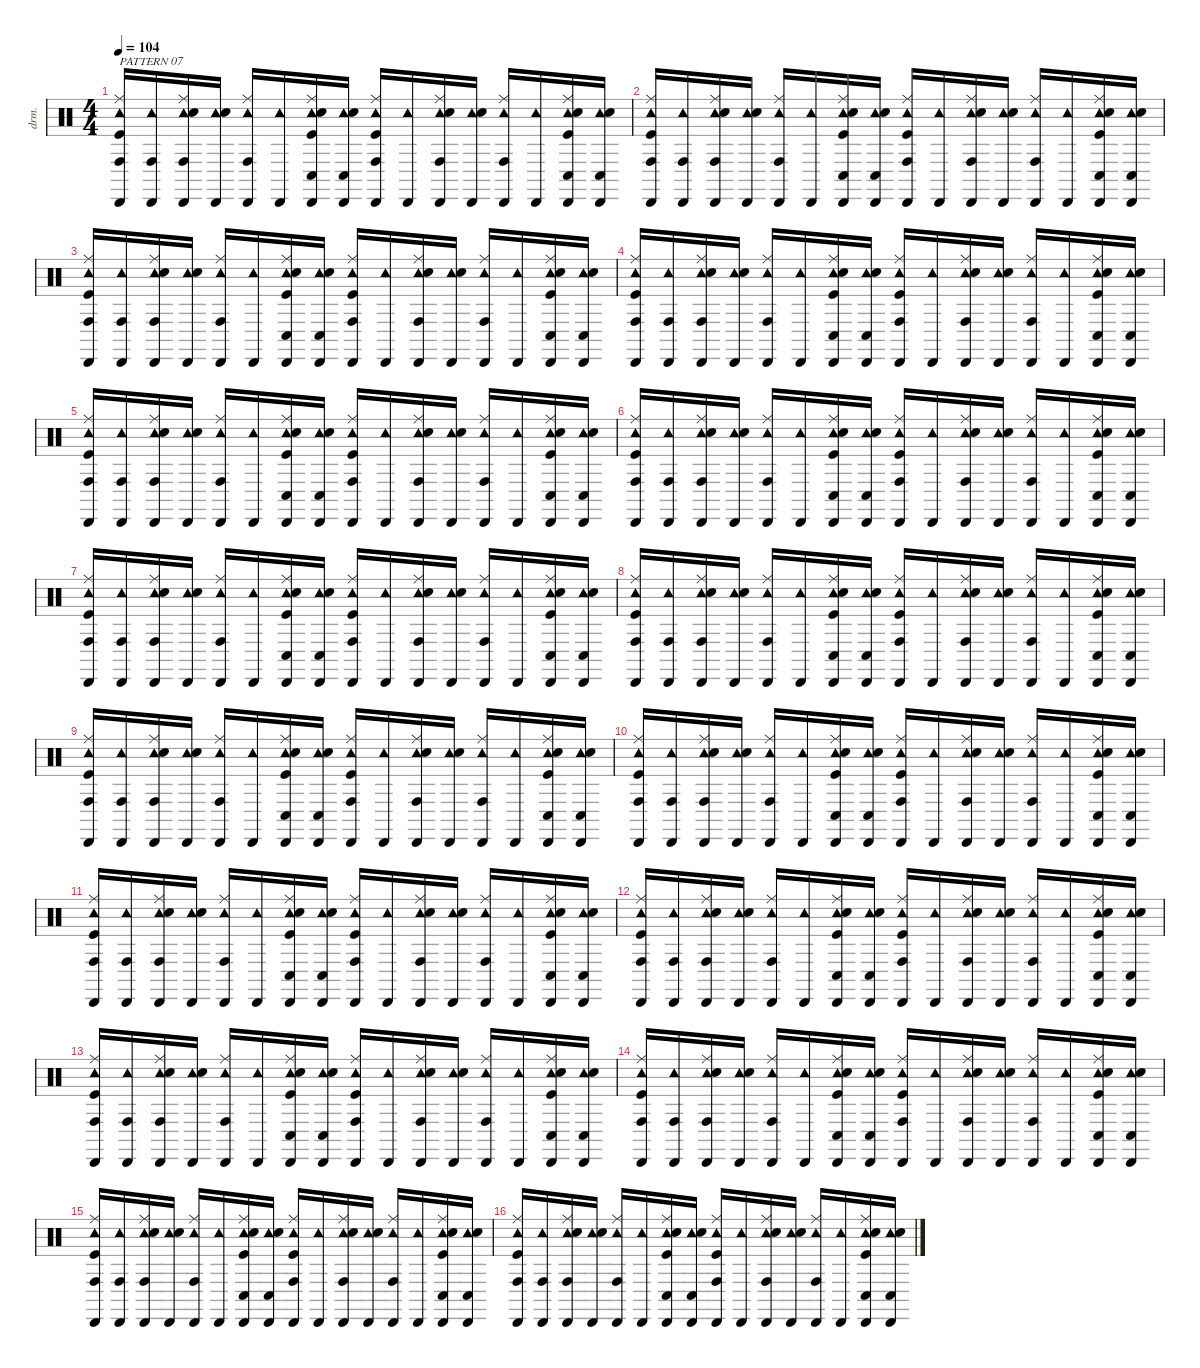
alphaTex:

\defaultSystemsLayout 4
\hideDynamics
\bracketExtendMode nobrackets
\otherSystemsTrackNameOrientation horizontal
\track ("Drums" "drm.") {instrument percussion}
\staff {score}
\articulation defaults
\ts (4 4)
\tempo 104
\clef neutral
\ks c
("Cabasa (hit)" "Conga high (hit)" "Tambourine (hit)" "Ride (middle)" "Kick (hit)").16{txt "PATTERN 07" dy f beam Up} ("Cabasa (hit)" "Conga high (hit)" "Tambourine (hit)").16{beam Up} ("Cabasa (hit)" "Conga high (hit)" "Tambourine (hit)" "Ride (middle)" "Snare (hit) 2").16{beam Up} ("Cabasa (hit)" "Tambourine (hit)" "Snare (hit) 2").16{beam Up} ("Cabasa (hit)" "Conga high (hit)" "Tambourine (hit)" "Ride (middle)").16{beam Up} ("Cabasa (hit)" "Tambourine (hit)").16{beam Up} ("Cabasa (hit)" "Conga low (hit)" "Tambourine (hit)" "Ride (middle)" "Snare (hit) 2" "Kick (hit)").16{beam Up} ("Cabasa (hit)" "Conga low (hit)" "Tambourine (hit)" "Snare (hit) 2").16{beam Up} ("Cabasa (hit)" "Conga high (hit)" "Tambourine (hit)" "Ride (middle)" "Kick (hit)").16{beam Up} ("Cabasa (hit)" "Tambourine (hit)").16{beam Up} ("Cabasa (hit)" "Conga high (hit)" "Tambourine (hit)" "Ride (middle)" "Snare (hit) 2").16{beam Up} ("Cabasa (hit)" "Tambourine (hit)" "Snare (hit) 2").16{beam Up} ("Cabasa (hit)" "Conga high (hit)" "Tambourine (hit)" "Ride (middle)").16{beam Up} ("Cabasa (hit)" "Tambourine (hit)").16{beam Up} ("Cabasa (hit)" "Conga low (hit)" "Tambourine (hit)" "Ride (middle)" "Snare (hit) 2" "Kick (hit)").16{beam Up} ("Cabasa (hit)" "Conga low (hit)" "Tambourine (hit)" "Snare (hit) 2").16{beam Up} |
("Cabasa (hit)" "Conga high (hit)" "Tambourine (hit)" "Ride (middle)" "Kick (hit)").16{beam Up} ("Cabasa (hit)" "Conga high (hit)" "Tambourine (hit)").16{beam Up} ("Cabasa (hit)" "Conga high (hit)" "Tambourine (hit)" "Ride (middle)" "Snare (hit) 2").16{beam Up} ("Cabasa (hit)" "Tambourine (hit)" "Snare (hit) 2").16{beam Up} ("Cabasa (hit)" "Conga high (hit)" "Tambourine (hit)" "Ride (middle)").16{beam Up} ("Cabasa (hit)" "Tambourine (hit)").16{beam Up} ("Cabasa (hit)" "Conga low (hit)" "Tambourine (hit)" "Ride (middle)" "Snare (hit) 2" "Kick (hit)").16{beam Up} ("Cabasa (hit)" "Conga low (hit)" "Tambourine (hit)" "Snare (hit) 2").16{beam Up} ("Cabasa (hit)" "Conga high (hit)" "Tambourine (hit)" "Ride (middle)" "Kick (hit)").16{beam Up} ("Cabasa (hit)" "Tambourine (hit)").16{beam Up} ("Cabasa (hit)" "Conga high (hit)" "Tambourine (hit)" "Ride (middle)" "Snare (hit) 2").16{beam Up} ("Cabasa (hit)" "Tambourine (hit)" "Snare (hit) 2").16{beam Up} ("Cabasa (hit)" "Conga high (hit)" "Tambourine (hit)" "Ride (middle)").16{beam Up} ("Cabasa (hit)" "Tambourine (hit)").16{beam Up} ("Cabasa (hit)" "Conga low (hit)" "Tambourine (hit)" "Ride (middle)" "Snare (hit) 2" "Kick (hit)").16{beam Up} ("Cabasa (hit)" "Conga low (hit)" "Tambourine (hit)" "Snare (hit) 2").16{beam Up} |
("Cabasa (hit)" "Conga high (hit)" "Tambourine (hit)" "Ride (middle)" "Kick (hit)").16{beam Up} ("Cabasa (hit)" "Conga high (hit)" "Tambourine (hit)").16{beam Up} ("Cabasa (hit)" "Conga high (hit)" "Tambourine (hit)" "Ride (middle)" "Snare (hit) 2").16{beam Up} ("Cabasa (hit)" "Tambourine (hit)" "Snare (hit) 2").16{beam Up} ("Cabasa (hit)" "Conga high (hit)" "Tambourine (hit)" "Ride (middle)").16{beam Up} ("Cabasa (hit)" "Tambourine (hit)").16{beam Up} ("Cabasa (hit)" "Conga low (hit)" "Tambourine (hit)" "Ride (middle)" "Snare (hit) 2" "Kick (hit)").16{beam Up} ("Cabasa (hit)" "Conga low (hit)" "Tambourine (hit)" "Snare (hit) 2").16{beam Up} ("Cabasa (hit)" "Conga high (hit)" "Tambourine (hit)" "Ride (middle)" "Kick (hit)").16{beam Up} ("Cabasa (hit)" "Tambourine (hit)").16{beam Up} ("Cabasa (hit)" "Conga high (hit)" "Tambourine (hit)" "Ride (middle)" "Snare (hit) 2").16{beam Up} ("Cabasa (hit)" "Tambourine (hit)" "Snare (hit) 2").16{beam Up} ("Cabasa (hit)" "Conga high (hit)" "Tambourine (hit)" "Ride (middle)").16{beam Up} ("Cabasa (hit)" "Tambourine (hit)").16{beam Up} ("Cabasa (hit)" "Conga low (hit)" "Tambourine (hit)" "Ride (middle)" "Snare (hit) 2" "Kick (hit)").16{beam Up} ("Cabasa (hit)" "Conga low (hit)" "Tambourine (hit)" "Snare (hit) 2").16{beam Up} |
("Cabasa (hit)" "Conga high (hit)" "Tambourine (hit)" "Ride (middle)" "Kick (hit)").16{beam Up} ("Cabasa (hit)" "Conga high (hit)" "Tambourine (hit)").16{beam Up} ("Cabasa (hit)" "Conga high (hit)" "Tambourine (hit)" "Ride (middle)" "Snare (hit) 2").16{beam Up} ("Cabasa (hit)" "Tambourine (hit)" "Snare (hit) 2").16{beam Up} ("Cabasa (hit)" "Conga high (hit)" "Tambourine (hit)" "Ride (middle)").16{beam Up} ("Cabasa (hit)" "Tambourine (hit)").16{beam Up} ("Cabasa (hit)" "Conga low (hit)" "Tambourine (hit)" "Ride (middle)" "Snare (hit) 2" "Kick (hit)").16{beam Up} ("Cabasa (hit)" "Conga low (hit)" "Tambourine (hit)" "Snare (hit) 2").16{beam Up} ("Cabasa (hit)" "Conga high (hit)" "Tambourine (hit)" "Ride (middle)" "Kick (hit)").16{beam Up} ("Cabasa (hit)" "Tambourine (hit)").16{beam Up} ("Cabasa (hit)" "Conga high (hit)" "Tambourine (hit)" "Ride (middle)" "Snare (hit) 2").16{beam Up} ("Cabasa (hit)" "Tambourine (hit)" "Snare (hit) 2").16{beam Up} ("Cabasa (hit)" "Conga high (hit)" "Tambourine (hit)" "Ride (middle)").16{beam Up} ("Cabasa (hit)" "Tambourine (hit)").16{beam Up} ("Cabasa (hit)" "Conga low (hit)" "Tambourine (hit)" "Ride (middle)" "Snare (hit) 2" "Kick (hit)").16{beam Up} ("Cabasa (hit)" "Conga low (hit)" "Tambourine (hit)" "Snare (hit) 2").16{beam Up} |
("Cabasa (hit)" "Conga high (hit)" "Tambourine (hit)" "Ride (middle)" "Kick (hit)").16{beam Up} ("Cabasa (hit)" "Conga high (hit)" "Tambourine (hit)").16{beam Up} ("Cabasa (hit)" "Conga high (hit)" "Tambourine (hit)" "Ride (middle)" "Snare (hit) 2").16{beam Up} ("Cabasa (hit)" "Tambourine (hit)" "Snare (hit) 2").16{beam Up} ("Cabasa (hit)" "Conga high (hit)" "Tambourine (hit)" "Ride (middle)").16{beam Up} ("Cabasa (hit)" "Tambourine (hit)").16{beam Up} ("Cabasa (hit)" "Conga low (hit)" "Tambourine (hit)" "Ride (middle)" "Snare (hit) 2" "Kick (hit)").16{beam Up} ("Cabasa (hit)" "Conga low (hit)" "Tambourine (hit)" "Snare (hit) 2").16{beam Up} ("Cabasa (hit)" "Conga high (hit)" "Tambourine (hit)" "Ride (middle)" "Kick (hit)").16{beam Up} ("Cabasa (hit)" "Tambourine (hit)").16{beam Up} ("Cabasa (hit)" "Conga high (hit)" "Tambourine (hit)" "Ride (middle)" "Snare (hit) 2").16{beam Up} ("Cabasa (hit)" "Tambourine (hit)" "Snare (hit) 2").16{beam Up} ("Cabasa (hit)" "Conga high (hit)" "Tambourine (hit)" "Ride (middle)").16{beam Up} ("Cabasa (hit)" "Tambourine (hit)").16{beam Up} ("Cabasa (hit)" "Conga low (hit)" "Tambourine (hit)" "Ride (middle)" "Snare (hit) 2" "Kick (hit)").16{beam Up} ("Cabasa (hit)" "Conga low (hit)" "Tambourine (hit)" "Snare (hit) 2").16{beam Up} |
("Cabasa (hit)" "Conga high (hit)" "Tambourine (hit)" "Ride (middle)" "Kick (hit)").16{beam Up} ("Cabasa (hit)" "Conga high (hit)" "Tambourine (hit)").16{beam Up} ("Cabasa (hit)" "Conga high (hit)" "Tambourine (hit)" "Ride (middle)" "Snare (hit) 2").16{beam Up} ("Cabasa (hit)" "Tambourine (hit)" "Snare (hit) 2").16{beam Up} ("Cabasa (hit)" "Conga high (hit)" "Tambourine (hit)" "Ride (middle)").16{beam Up} ("Cabasa (hit)" "Tambourine (hit)").16{beam Up} ("Cabasa (hit)" "Conga low (hit)" "Tambourine (hit)" "Ride (middle)" "Snare (hit) 2" "Kick (hit)").16{beam Up} ("Cabasa (hit)" "Conga low (hit)" "Tambourine (hit)" "Snare (hit) 2").16{beam Up} ("Cabasa (hit)" "Conga high (hit)" "Tambourine (hit)" "Ride (middle)" "Kick (hit)").16{beam Up} ("Cabasa (hit)" "Tambourine (hit)").16{beam Up} ("Cabasa (hit)" "Conga high (hit)" "Tambourine (hit)" "Ride (middle)" "Snare (hit) 2").16{beam Up} ("Cabasa (hit)" "Tambourine (hit)" "Snare (hit) 2").16{beam Up} ("Cabasa (hit)" "Conga high (hit)" "Tambourine (hit)" "Ride (middle)").16{beam Up} ("Cabasa (hit)" "Tambourine (hit)").16{beam Up} ("Cabasa (hit)" "Conga low (hit)" "Tambourine (hit)" "Ride (middle)" "Snare (hit) 2" "Kick (hit)").16{beam Up} ("Cabasa (hit)" "Conga low (hit)" "Tambourine (hit)" "Snare (hit) 2").16{beam Up} |
("Cabasa (hit)" "Conga high (hit)" "Tambourine (hit)" "Ride (middle)" "Kick (hit)").16{beam Up} ("Cabasa (hit)" "Conga high (hit)" "Tambourine (hit)").16{beam Up} ("Cabasa (hit)" "Conga high (hit)" "Tambourine (hit)" "Ride (middle)" "Snare (hit) 2").16{beam Up} ("Cabasa (hit)" "Tambourine (hit)" "Snare (hit) 2").16{beam Up} ("Cabasa (hit)" "Conga high (hit)" "Tambourine (hit)" "Ride (middle)").16{beam Up} ("Cabasa (hit)" "Tambourine (hit)").16{beam Up} ("Cabasa (hit)" "Conga low (hit)" "Tambourine (hit)" "Ride (middle)" "Snare (hit) 2" "Kick (hit)").16{beam Up} ("Cabasa (hit)" "Conga low (hit)" "Tambourine (hit)" "Snare (hit) 2").16{beam Up} ("Cabasa (hit)" "Conga high (hit)" "Tambourine (hit)" "Ride (middle)" "Kick (hit)").16{beam Up} ("Cabasa (hit)" "Tambourine (hit)").16{beam Up} ("Cabasa (hit)" "Conga high (hit)" "Tambourine (hit)" "Ride (middle)" "Snare (hit) 2").16{beam Up} ("Cabasa (hit)" "Tambourine (hit)" "Snare (hit) 2").16{beam Up} ("Cabasa (hit)" "Conga high (hit)" "Tambourine (hit)" "Ride (middle)").16{beam Up} ("Cabasa (hit)" "Tambourine (hit)").16{beam Up} ("Cabasa (hit)" "Conga low (hit)" "Tambourine (hit)" "Ride (middle)" "Snare (hit) 2" "Kick (hit)").16{beam Up} ("Cabasa (hit)" "Conga low (hit)" "Tambourine (hit)" "Snare (hit) 2").16{beam Up} |
("Cabasa (hit)" "Conga high (hit)" "Tambourine (hit)" "Ride (middle)" "Kick (hit)").16{beam Up} ("Cabasa (hit)" "Conga high (hit)" "Tambourine (hit)").16{beam Up} ("Cabasa (hit)" "Conga high (hit)" "Tambourine (hit)" "Ride (middle)" "Snare (hit) 2").16{beam Up} ("Cabasa (hit)" "Tambourine (hit)" "Snare (hit) 2").16{beam Up} ("Cabasa (hit)" "Conga high (hit)" "Tambourine (hit)" "Ride (middle)").16{beam Up} ("Cabasa (hit)" "Tambourine (hit)").16{beam Up} ("Cabasa (hit)" "Conga low (hit)" "Tambourine (hit)" "Ride (middle)" "Snare (hit) 2" "Kick (hit)").16{beam Up} ("Cabasa (hit)" "Conga low (hit)" "Tambourine (hit)" "Snare (hit) 2").16{beam Up} ("Cabasa (hit)" "Conga high (hit)" "Tambourine (hit)" "Ride (middle)" "Kick (hit)").16{beam Up} ("Cabasa (hit)" "Tambourine (hit)").16{beam Up} ("Cabasa (hit)" "Conga high (hit)" "Tambourine (hit)" "Ride (middle)" "Snare (hit) 2").16{beam Up} ("Cabasa (hit)" "Tambourine (hit)" "Snare (hit) 2").16{beam Up} ("Cabasa (hit)" "Conga high (hit)" "Tambourine (hit)" "Ride (middle)").16{beam Up} ("Cabasa (hit)" "Tambourine (hit)").16{beam Up} ("Cabasa (hit)" "Conga low (hit)" "Tambourine (hit)" "Ride (middle)" "Snare (hit) 2" "Kick (hit)").16{beam Up} ("Cabasa (hit)" "Conga low (hit)" "Tambourine (hit)" "Snare (hit) 2").16{beam Up} |
("Cabasa (hit)" "Conga high (hit)" "Tambourine (hit)" "Ride (middle)" "Kick (hit)").16{beam Up} ("Cabasa (hit)" "Conga high (hit)" "Tambourine (hit)").16{beam Up} ("Cabasa (hit)" "Conga high (hit)" "Tambourine (hit)" "Ride (middle)" "Snare (hit) 2").16{beam Up} ("Cabasa (hit)" "Tambourine (hit)" "Snare (hit) 2").16{beam Up} ("Cabasa (hit)" "Conga high (hit)" "Tambourine (hit)" "Ride (middle)").16{beam Up} ("Cabasa (hit)" "Tambourine (hit)").16{beam Up} ("Cabasa (hit)" "Conga low (hit)" "Tambourine (hit)" "Ride (middle)" "Snare (hit) 2" "Kick (hit)").16{beam Up} ("Cabasa (hit)" "Conga low (hit)" "Tambourine (hit)" "Snare (hit) 2").16{beam Up} ("Cabasa (hit)" "Conga high (hit)" "Tambourine (hit)" "Ride (middle)" "Kick (hit)").16{beam Up} ("Cabasa (hit)" "Tambourine (hit)").16{beam Up} ("Cabasa (hit)" "Conga high (hit)" "Tambourine (hit)" "Ride (middle)" "Snare (hit) 2").16{beam Up} ("Cabasa (hit)" "Tambourine (hit)" "Snare (hit) 2").16{beam Up} ("Cabasa (hit)" "Conga high (hit)" "Tambourine (hit)" "Ride (middle)").16{beam Up} ("Cabasa (hit)" "Tambourine (hit)").16{beam Up} ("Cabasa (hit)" "Conga low (hit)" "Tambourine (hit)" "Ride (middle)" "Snare (hit) 2" "Kick (hit)").16{beam Up} ("Cabasa (hit)" "Conga low (hit)" "Tambourine (hit)" "Snare (hit) 2").16{beam Up} |
("Cabasa (hit)" "Conga high (hit)" "Tambourine (hit)" "Ride (middle)" "Kick (hit)").16{beam Up} ("Cabasa (hit)" "Conga high (hit)" "Tambourine (hit)").16{beam Up} ("Cabasa (hit)" "Conga high (hit)" "Tambourine (hit)" "Ride (middle)" "Snare (hit) 2").16{beam Up} ("Cabasa (hit)" "Tambourine (hit)" "Snare (hit) 2").16{beam Up} ("Cabasa (hit)" "Conga high (hit)" "Tambourine (hit)" "Ride (middle)").16{beam Up} ("Cabasa (hit)" "Tambourine (hit)").16{beam Up} ("Cabasa (hit)" "Conga low (hit)" "Tambourine (hit)" "Ride (middle)" "Snare (hit) 2" "Kick (hit)").16{beam Up} ("Cabasa (hit)" "Conga low (hit)" "Tambourine (hit)" "Snare (hit) 2").16{beam Up} ("Cabasa (hit)" "Conga high (hit)" "Tambourine (hit)" "Ride (middle)" "Kick (hit)").16{beam Up} ("Cabasa (hit)" "Tambourine (hit)").16{beam Up} ("Cabasa (hit)" "Conga high (hit)" "Tambourine (hit)" "Ride (middle)" "Snare (hit) 2").16{beam Up} ("Cabasa (hit)" "Tambourine (hit)" "Snare (hit) 2").16{beam Up} ("Cabasa (hit)" "Conga high (hit)" "Tambourine (hit)" "Ride (middle)").16{beam Up} ("Cabasa (hit)" "Tambourine (hit)").16{beam Up} ("Cabasa (hit)" "Conga low (hit)" "Tambourine (hit)" "Ride (middle)" "Snare (hit) 2" "Kick (hit)").16{beam Up} ("Cabasa (hit)" "Conga low (hit)" "Tambourine (hit)" "Snare (hit) 2").16{beam Up} |
("Cabasa (hit)" "Conga high (hit)" "Tambourine (hit)" "Ride (middle)" "Kick (hit)").16{beam Up} ("Cabasa (hit)" "Conga high (hit)" "Tambourine (hit)").16{beam Up} ("Cabasa (hit)" "Conga high (hit)" "Tambourine (hit)" "Ride (middle)" "Snare (hit) 2").16{beam Up} ("Cabasa (hit)" "Tambourine (hit)" "Snare (hit) 2").16{beam Up} ("Cabasa (hit)" "Conga high (hit)" "Tambourine (hit)" "Ride (middle)").16{beam Up} ("Cabasa (hit)" "Tambourine (hit)").16{beam Up} ("Cabasa (hit)" "Conga low (hit)" "Tambourine (hit)" "Ride (middle)" "Snare (hit) 2" "Kick (hit)").16{beam Up} ("Cabasa (hit)" "Conga low (hit)" "Tambourine (hit)" "Snare (hit) 2").16{beam Up} ("Cabasa (hit)" "Conga high (hit)" "Tambourine (hit)" "Ride (middle)" "Kick (hit)").16{beam Up} ("Cabasa (hit)" "Tambourine (hit)").16{beam Up} ("Cabasa (hit)" "Conga high (hit)" "Tambourine (hit)" "Ride (middle)" "Snare (hit) 2").16{beam Up} ("Cabasa (hit)" "Tambourine (hit)" "Snare (hit) 2").16{beam Up} ("Cabasa (hit)" "Conga high (hit)" "Tambourine (hit)" "Ride (middle)").16{beam Up} ("Cabasa (hit)" "Tambourine (hit)").16{beam Up} ("Cabasa (hit)" "Conga low (hit)" "Tambourine (hit)" "Ride (middle)" "Snare (hit) 2" "Kick (hit)").16{beam Up} ("Cabasa (hit)" "Conga low (hit)" "Tambourine (hit)" "Snare (hit) 2").16{beam Up} |
("Cabasa (hit)" "Conga high (hit)" "Tambourine (hit)" "Ride (middle)" "Kick (hit)").16{beam Up} ("Cabasa (hit)" "Conga high (hit)" "Tambourine (hit)").16{beam Up} ("Cabasa (hit)" "Conga high (hit)" "Tambourine (hit)" "Ride (middle)" "Snare (hit) 2").16{beam Up} ("Cabasa (hit)" "Tambourine (hit)" "Snare (hit) 2").16{beam Up} ("Cabasa (hit)" "Conga high (hit)" "Tambourine (hit)" "Ride (middle)").16{beam Up} ("Cabasa (hit)" "Tambourine (hit)").16{beam Up} ("Cabasa (hit)" "Conga low (hit)" "Tambourine (hit)" "Ride (middle)" "Snare (hit) 2" "Kick (hit)").16{beam Up} ("Cabasa (hit)" "Conga low (hit)" "Tambourine (hit)" "Snare (hit) 2").16{beam Up} ("Cabasa (hit)" "Conga high (hit)" "Tambourine (hit)" "Ride (middle)" "Kick (hit)").16{beam Up} ("Cabasa (hit)" "Tambourine (hit)").16{beam Up} ("Cabasa (hit)" "Conga high (hit)" "Tambourine (hit)" "Ride (middle)" "Snare (hit) 2").16{beam Up} ("Cabasa (hit)" "Tambourine (hit)" "Snare (hit) 2").16{beam Up} ("Cabasa (hit)" "Conga high (hit)" "Tambourine (hit)" "Ride (middle)").16{beam Up} ("Cabasa (hit)" "Tambourine (hit)").16{beam Up} ("Cabasa (hit)" "Conga low (hit)" "Tambourine (hit)" "Ride (middle)" "Snare (hit) 2" "Kick (hit)").16{beam Up} ("Cabasa (hit)" "Conga low (hit)" "Tambourine (hit)" "Snare (hit) 2").16{beam Up} |
("Cabasa (hit)" "Conga high (hit)" "Tambourine (hit)" "Ride (middle)" "Kick (hit)").16{beam Up} ("Cabasa (hit)" "Conga high (hit)" "Tambourine (hit)").16{beam Up} ("Cabasa (hit)" "Conga high (hit)" "Tambourine (hit)" "Ride (middle)" "Snare (hit) 2").16{beam Up} ("Cabasa (hit)" "Tambourine (hit)" "Snare (hit) 2").16{beam Up} ("Cabasa (hit)" "Conga high (hit)" "Tambourine (hit)" "Ride (middle)").16{beam Up} ("Cabasa (hit)" "Tambourine (hit)").16{beam Up} ("Cabasa (hit)" "Conga low (hit)" "Tambourine (hit)" "Ride (middle)" "Snare (hit) 2" "Kick (hit)").16{beam Up} ("Cabasa (hit)" "Conga low (hit)" "Tambourine (hit)" "Snare (hit) 2").16{beam Up} ("Cabasa (hit)" "Conga high (hit)" "Tambourine (hit)" "Ride (middle)" "Kick (hit)").16{beam Up} ("Cabasa (hit)" "Tambourine (hit)").16{beam Up} ("Cabasa (hit)" "Conga high (hit)" "Tambourine (hit)" "Ride (middle)" "Snare (hit) 2").16{beam Up} ("Cabasa (hit)" "Tambourine (hit)" "Snare (hit) 2").16{beam Up} ("Cabasa (hit)" "Conga high (hit)" "Tambourine (hit)" "Ride (middle)").16{beam Up} ("Cabasa (hit)" "Tambourine (hit)").16{beam Up} ("Cabasa (hit)" "Conga low (hit)" "Tambourine (hit)" "Ride (middle)" "Snare (hit) 2" "Kick (hit)").16{beam Up} ("Cabasa (hit)" "Conga low (hit)" "Tambourine (hit)" "Snare (hit) 2").16{beam Up} |
("Cabasa (hit)" "Conga high (hit)" "Tambourine (hit)" "Ride (middle)" "Kick (hit)").16{beam Up} ("Cabasa (hit)" "Conga high (hit)" "Tambourine (hit)").16{beam Up} ("Cabasa (hit)" "Conga high (hit)" "Tambourine (hit)" "Ride (middle)" "Snare (hit) 2").16{beam Up} ("Cabasa (hit)" "Tambourine (hit)" "Snare (hit) 2").16{beam Up} ("Cabasa (hit)" "Conga high (hit)" "Tambourine (hit)" "Ride (middle)").16{beam Up} ("Cabasa (hit)" "Tambourine (hit)").16{beam Up} ("Cabasa (hit)" "Conga low (hit)" "Tambourine (hit)" "Ride (middle)" "Snare (hit) 2" "Kick (hit)").16{beam Up} ("Cabasa (hit)" "Conga low (hit)" "Tambourine (hit)" "Snare (hit) 2").16{beam Up} ("Cabasa (hit)" "Conga high (hit)" "Tambourine (hit)" "Ride (middle)" "Kick (hit)").16{beam Up} ("Cabasa (hit)" "Tambourine (hit)").16{beam Up} ("Cabasa (hit)" "Conga high (hit)" "Tambourine (hit)" "Ride (middle)" "Snare (hit) 2").16{beam Up} ("Cabasa (hit)" "Tambourine (hit)" "Snare (hit) 2").16{beam Up} ("Cabasa (hit)" "Conga high (hit)" "Tambourine (hit)" "Ride (middle)").16{beam Up} ("Cabasa (hit)" "Tambourine (hit)").16{beam Up} ("Cabasa (hit)" "Conga low (hit)" "Tambourine (hit)" "Ride (middle)" "Snare (hit) 2" "Kick (hit)").16{beam Up} ("Cabasa (hit)" "Conga low (hit)" "Tambourine (hit)" "Snare (hit) 2").16{beam Up} |
("Cabasa (hit)" "Conga high (hit)" "Tambourine (hit)" "Ride (middle)" "Kick (hit)").16{beam Up} ("Cabasa (hit)" "Conga high (hit)" "Tambourine (hit)").16{beam Up} ("Cabasa (hit)" "Conga high (hit)" "Tambourine (hit)" "Ride (middle)" "Snare (hit) 2").16{beam Up} ("Cabasa (hit)" "Tambourine (hit)" "Snare (hit) 2").16{beam Up} ("Cabasa (hit)" "Conga high (hit)" "Tambourine (hit)" "Ride (middle)").16{beam Up} ("Cabasa (hit)" "Tambourine (hit)").16{beam Up} ("Cabasa (hit)" "Conga low (hit)" "Tambourine (hit)" "Ride (middle)" "Snare (hit) 2" "Kick (hit)").16{beam Up} ("Cabasa (hit)" "Conga low (hit)" "Tambourine (hit)" "Snare (hit) 2").16{beam Up} ("Cabasa (hit)" "Conga high (hit)" "Tambourine (hit)" "Ride (middle)" "Kick (hit)").16{beam Up} ("Cabasa (hit)" "Tambourine (hit)").16{beam Up} ("Cabasa (hit)" "Conga high (hit)" "Tambourine (hit)" "Ride (middle)" "Snare (hit) 2").16{beam Up} ("Cabasa (hit)" "Tambourine (hit)" "Snare (hit) 2").16{beam Up} ("Cabasa (hit)" "Conga high (hit)" "Tambourine (hit)" "Ride (middle)").16{beam Up} ("Cabasa (hit)" "Tambourine (hit)").16{beam Up} ("Cabasa (hit)" "Conga low (hit)" "Tambourine (hit)" "Ride (middle)" "Snare (hit) 2" "Kick (hit)").16{beam Up} ("Cabasa (hit)" "Conga low (hit)" "Tambourine (hit)" "Snare (hit) 2").16{beam Up} |
("Cabasa (hit)" "Conga high (hit)" "Tambourine (hit)" "Ride (middle)" "Kick (hit)").16{beam Up} ("Cabasa (hit)" "Conga high (hit)" "Tambourine (hit)").16{beam Up} ("Cabasa (hit)" "Conga high (hit)" "Tambourine (hit)" "Ride (middle)" "Snare (hit) 2").16{beam Up} ("Cabasa (hit)" "Tambourine (hit)" "Snare (hit) 2").16{beam Up} ("Cabasa (hit)" "Conga high (hit)" "Tambourine (hit)" "Ride (middle)").16{beam Up} ("Cabasa (hit)" "Tambourine (hit)").16{beam Up} ("Cabasa (hit)" "Conga low (hit)" "Tambourine (hit)" "Ride (middle)" "Snare (hit) 2" "Kick (hit)").16{beam Up} ("Cabasa (hit)" "Conga low (hit)" "Tambourine (hit)" "Snare (hit) 2").16{beam Up} ("Cabasa (hit)" "Conga high (hit)" "Tambourine (hit)" "Ride (middle)" "Kick (hit)").16{beam Up} ("Cabasa (hit)" "Tambourine (hit)").16{beam Up} ("Cabasa (hit)" "Conga high (hit)" "Tambourine (hit)" "Ride (middle)" "Snare (hit) 2").16{beam Up} ("Cabasa (hit)" "Tambourine (hit)" "Snare (hit) 2").16{beam Up} ("Cabasa (hit)" "Conga high (hit)" "Tambourine (hit)" "Ride (middle)").16{beam Up} ("Cabasa (hit)" "Tambourine (hit)").16{beam Up} ("Cabasa (hit)" "Conga low (hit)" "Tambourine (hit)" "Ride (middle)" "Snare (hit) 2" "Kick (hit)").16{beam Up} ("Cabasa (hit)" "Conga low (hit)" "Tambourine (hit)" "Snare (hit) 2").16{beam Up}
